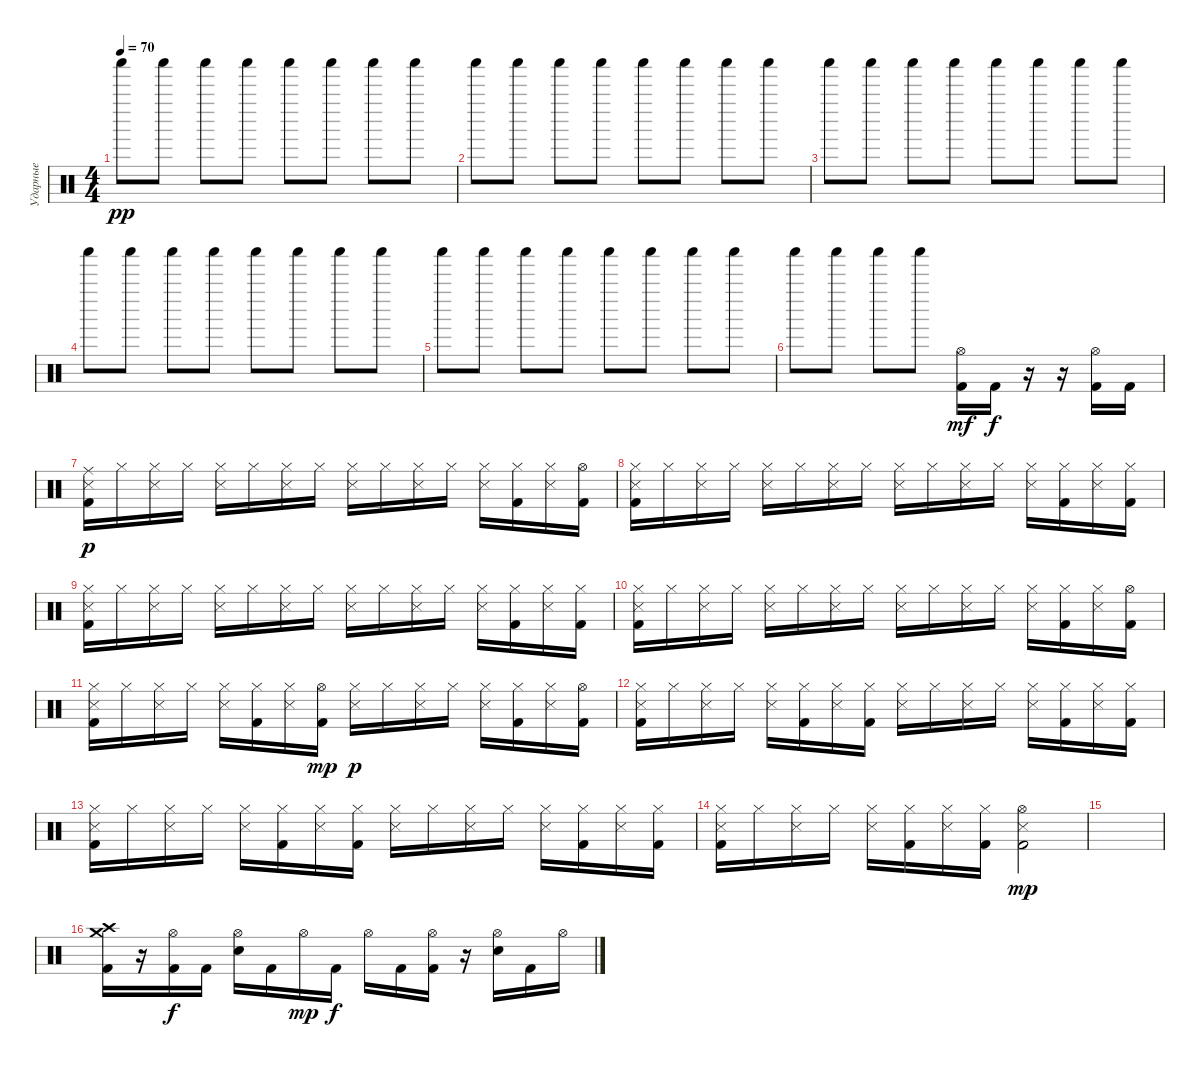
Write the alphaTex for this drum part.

\track ("Ударные" "Ударные") {instrument percussion}
\staff {score}
\articulation defaults
\ts (4 4)
\tempo 70
\clef neutral
\ks c "Shaker (hit)".8{dy pp} "Shaker (hit)".8 "Shaker (hit)".8 "Shaker (hit)".8 "Shaker (hit)".8 "Shaker (hit)".8 "Shaker (hit)".8 "Shaker (hit)".8
|
"Shaker (hit)".8 "Shaker (hit)".8 "Shaker (hit)".8 "Shaker (hit)".8 "Shaker (hit)".8 "Shaker (hit)".8 "Shaker (hit)".8 "Shaker (hit)".8 |
"Shaker (hit)".8 "Shaker (hit)".8 "Shaker (hit)".8 "Shaker (hit)".8 "Shaker (hit)".8 "Shaker (hit)".8 "Shaker (hit)".8 "Shaker (hit)".8 |
"Shaker (hit)".8 "Shaker (hit)".8 "Shaker (hit)".8 "Shaker (hit)".8 "Shaker (hit)".8 "Shaker (hit)".8 "Shaker (hit)".8 "Shaker (hit)".8 |
"Shaker (hit)".8 "Shaker (hit)".8 "Shaker (hit)".8 "Shaker (hit)".8 "Shaker (hit)".8 "Shaker (hit)".8 "Shaker (hit)".8 "Shaker (hit)".8 |
"Shaker (hit)".8 "Shaker (hit)".8 "Shaker (hit)".8 "Shaker (hit)".8 ("Hi-Hat (open)" "Kick (hit) 2").16{dy mf} "Kick (hit) 2".16{dy f} r.16 r.16 ("Hi-Hat (open)" "Kick (hit) 2").16 "Kick (hit) 2".16 |
("Ride (middle)" "Snare (side stick) 3" "Kick (hit) 2").16{dy p} "Hi-Hat (closed)".16 ("Hi-Hat (closed)" "Snare (side stick) 3").16 "Hi-Hat (closed)".16 ("Hi-Hat (closed)" "Snare (side stick) 3").16 "Hi-Hat (closed)".16 ("Hi-Hat (closed)" "Snare (side stick) 3").16 "Hi-Hat (closed)".16 ("Hi-Hat (closed)" "Snare (side stick) 3").16 "Hi-Hat (closed)".16 ("Hi-Hat (closed)" "Snare (side stick) 3").16 "Hi-Hat (closed)".16 ("Hi-Hat (closed)" "Snare (side stick) 3").16 ("Hi-Hat (closed)" "Kick (hit) 2").16 ("Hi-Hat (closed)" "Snare (side stick) 3").16 ("Hi-Hat (open)" "Kick (hit) 2").16 |
("Hi-Hat (closed)" "Snare (side stick) 3" "Kick (hit) 2").16 "Hi-Hat (closed)".16 ("Hi-Hat (closed)" "Snare (side stick) 3").16 "Hi-Hat (closed)".16 ("Hi-Hat (closed)" "Snare (side stick) 3").16 "Hi-Hat (closed)".16 ("Hi-Hat (closed)" "Snare (side stick) 3").16 "Hi-Hat (closed)".16 ("Hi-Hat (closed)" "Snare (side stick) 3").16 "Hi-Hat (closed)".16 ("Hi-Hat (closed)" "Snare (side stick) 3").16 "Hi-Hat (closed)".16 ("Hi-Hat (closed)" "Snare (side stick) 3").16 ("Hi-Hat (closed)" "Kick (hit) 2").16 ("Hi-Hat (closed)" "Snare (side stick) 3").16 ("Hi-Hat (closed)" "Kick (hit) 2").16 |
("Hi-Hat (closed)" "Snare (side stick) 3" "Kick (hit) 2").16 "Hi-Hat (closed)".16 ("Hi-Hat (closed)" "Snare (side stick) 3").16 "Hi-Hat (closed)".16 ("Hi-Hat (closed)" "Snare (side stick) 3").16 "Hi-Hat (closed)".16 ("Hi-Hat (closed)" "Snare (side stick) 3").16 "Hi-Hat (closed)".16 ("Hi-Hat (closed)" "Snare (side stick) 3").16 "Hi-Hat (closed)".16 ("Hi-Hat (closed)" "Snare (side stick) 3").16 "Hi-Hat (closed)".16 ("Hi-Hat (closed)" "Snare (side stick) 3").16 ("Hi-Hat (closed)" "Kick (hit) 2").16 ("Hi-Hat (closed)" "Snare (side stick) 3").16 ("Hi-Hat (closed)" "Kick (hit) 2").16 |
("Hi-Hat (closed)" "Snare (side stick) 3" "Kick (hit) 2").16 "Hi-Hat (closed)".16 ("Hi-Hat (closed)" "Snare (side stick) 3").16 "Hi-Hat (closed)".16 ("Hi-Hat (closed)" "Snare (side stick) 3").16 "Hi-Hat (closed)".16 ("Hi-Hat (closed)" "Snare (side stick) 3").16 "Hi-Hat (closed)".16 ("Hi-Hat (closed)" "Snare (side stick) 3").16 "Hi-Hat (closed)".16 ("Hi-Hat (closed)" "Snare (side stick) 3").16 "Hi-Hat (closed)".16 ("Hi-Hat (closed)" "Snare (side stick) 3").16 ("Hi-Hat (closed)" "Kick (hit) 2").16 ("Hi-Hat (closed)" "Snare (side stick) 3").16 ("Hi-Hat (open)" "Kick (hit) 2").16 |
("Hi-Hat (closed)" "Snare (side stick) 3" "Kick (hit) 2").16 "Hi-Hat (closed)".16 ("Hi-Hat (closed)" "Snare (side stick) 3").16 "Hi-Hat (closed)".16 ("Hi-Hat (closed)" "Snare (side stick) 3").16 ("Hi-Hat (closed)" "Kick (hit) 2").16 ("Hi-Hat (closed)" "Snare (side stick) 3").16 ("Hi-Hat (open)" "Kick (hit) 2").16{dy mp} ("Hi-Hat (closed)" "Snare (side stick) 3").16{dy p} "Hi-Hat (closed)".16 ("Hi-Hat (closed)" "Snare (side stick) 3").16 "Hi-Hat (closed)".16 ("Hi-Hat (closed)" "Snare (side stick) 3").16 ("Hi-Hat (closed)" "Kick (hit) 2").16 ("Hi-Hat (closed)" "Snare (side stick) 3").16 ("Hi-Hat (open)" "Kick (hit) 2").16 |
("Hi-Hat (closed)" "Snare (side stick) 3" "Kick (hit) 2").16 "Hi-Hat (closed)".16 ("Hi-Hat (closed)" "Snare (side stick) 3").16 "Hi-Hat (closed)".16 ("Hi-Hat (closed)" "Snare (side stick) 3").16 ("Hi-Hat (closed)" "Kick (hit) 2").16 ("Hi-Hat (closed)" "Snare (side stick) 3").16 ("Hi-Hat (closed)" "Kick (hit) 2").16 ("Hi-Hat (closed)" "Snare (side stick) 3").16 "Hi-Hat (closed)".16 ("Hi-Hat (closed)" "Snare (side stick) 3").16 "Hi-Hat (closed)".16 ("Hi-Hat (closed)" "Snare (side stick) 3").16 ("Hi-Hat (closed)" "Kick (hit) 2").16 ("Hi-Hat (closed)" "Snare (side stick) 3").16 ("Hi-Hat (closed)" "Kick (hit) 2").16 |
("Hi-Hat (closed)" "Snare (side stick) 3" "Kick (hit) 2").16 "Hi-Hat (closed)".16 ("Hi-Hat (closed)" "Snare (side stick) 3").16 "Hi-Hat (closed)".16 ("Hi-Hat (closed)" "Snare (side stick) 3").16 ("Hi-Hat (closed)" "Kick (hit) 2").16 ("Hi-Hat (closed)" "Snare (side stick) 3").16 ("Hi-Hat (closed)" "Kick (hit) 2").16 ("Hi-Hat (closed)" "Snare (side stick) 3").16 "Hi-Hat (closed)".16 ("Hi-Hat (closed)" "Snare (side stick) 3").16 "Hi-Hat (closed)".16 ("Hi-Hat (closed)" "Snare (side stick) 3").16 ("Hi-Hat (closed)" "Kick (hit) 2").16 ("Hi-Hat (closed)" "Snare (side stick) 3").16 ("Hi-Hat (closed)" "Kick (hit) 2").16 |
("Hi-Hat (closed)" "Snare (side stick) 3" "Kick (hit) 2").16 "Hi-Hat (closed)".16 ("Hi-Hat (closed)" "Snare (side stick) 3").16 "Hi-Hat (closed)".16 ("Hi-Hat (closed)" "Snare (side stick) 3").16 ("Hi-Hat (closed)" "Kick (hit) 2").16 ("Hi-Hat (closed)" "Snare (side stick) 3").16 ("Hi-Hat (closed)" "Kick (hit) 2").16 ("Hi-Hat (open)" "Snare (side stick) 3" "Kick (hit) 2").2{dy mp} |
|
("Crash high (hit)" "Crash medium (hit)" "Kick (hit) 2").16 r.16 ("Hi-Hat (open)" "Kick (hit) 2").16{dy f} "Kick (hit) 2".16 ("Hi-Hat (open)" "Electric Snare (hit)").16 "Kick (hit) 2".16 "Hi-Hat (open)".16{dy mp} "Kick (hit) 2".16{dy f} "Hi-Hat (open)".16 "Kick (hit) 2".16 ("Hi-Hat (open)" "Kick (hit) 2").16 r.16 ("Hi-Hat (open)" "Electric Snare (hit)").16 "Kick (hit) 2".16 "Hi-Hat (open)".16
